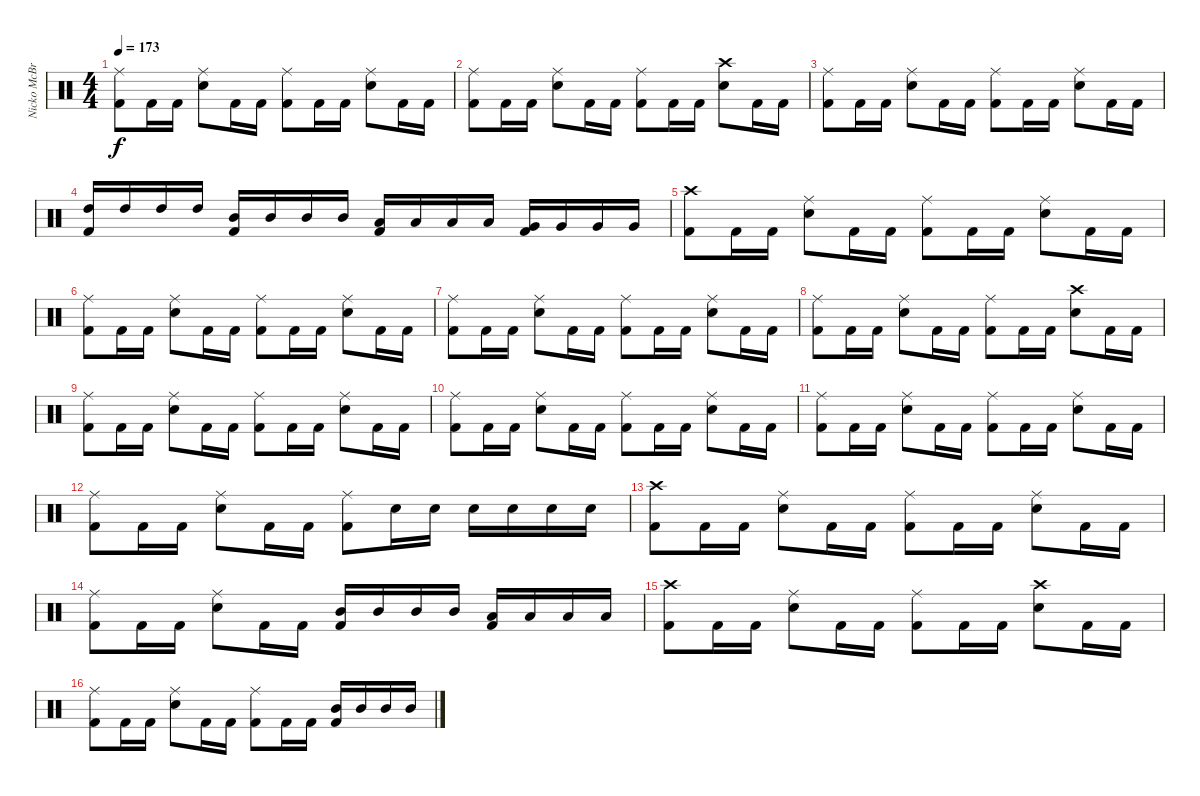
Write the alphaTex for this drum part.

\track ("Nicko McBrain" "Nicko McBr") {instrument percussion}
\staff {score}
\articulation defaults
\ts (4 4)
\tempo 173
\clef neutral
\ks c
("Ride (middle)" "Kick (hit) 2").8{dy f} "Kick (hit) 2".16 "Kick (hit) 2".16 ("Ride (middle)" "Electric Snare (hit)").8 "Kick (hit) 2".16 "Kick (hit) 2".16 ("Ride (middle)" "Kick (hit) 2").8 "Kick (hit) 2".16 "Kick (hit) 2".16 ("Ride (middle)" "Electric Snare (hit)").8 "Kick (hit) 2".16 "Kick (hit) 2".16 |
("Ride (middle)" "Kick (hit) 2").8 "Kick (hit) 2".16 "Kick (hit) 2".16 ("Ride (middle)" "Electric Snare (hit)").8 "Kick (hit) 2".16 "Kick (hit) 2".16 ("Ride (middle)" "Kick (hit) 2").8 "Kick (hit) 2".16 "Kick (hit) 2".16 ("Crash high (hit)" "Electric Snare (hit)").8 "Kick (hit) 2".16 "Kick (hit) 2".16 |
("Ride (middle)" "Kick (hit) 2").8 "Kick (hit) 2".16 "Kick (hit) 2".16 ("Ride (middle)" "Electric Snare (hit)").8 "Kick (hit) 2".16 "Kick (hit) 2".16 ("Ride (middle)" "Kick (hit) 2").8 "Kick (hit) 2".16 "Kick (hit) 2".16 ("Ride (middle)" "Electric Snare (hit)").8 "Kick (hit) 2".16 "Kick (hit) 2".16 |
("High Tom (hit)" "Kick (hit) 2").16 "High Tom (hit)".16 "High Tom (hit)".16 "High Tom (hit)".16 ("Mid Tom (hit)" "Kick (hit) 2").16 "Mid Tom (hit)".16 "Mid Tom (hit)".16 "Mid Tom (hit)".16 ("Low Tom (hit)" "Kick (hit) 2").16 "Low Tom (hit)".16 "Low Tom (hit)".16 "Low Tom (hit)".16 ("Very Low Tom (hit)" "Kick (hit) 2").16 "Very Low Tom (hit)".16 "Very Low Tom (hit)".16 "Very Low Tom (hit)".16 |
("Crash high (hit)" "Kick (hit) 2").8 "Kick (hit) 2".16 "Kick (hit) 2".16 ("Ride (middle)" "Electric Snare (hit)").8 "Kick (hit) 2".16 "Kick (hit) 2".16 ("Ride (middle)" "Kick (hit) 2").8 "Kick (hit) 2".16 "Kick (hit) 2".16 ("Ride (middle)" "Electric Snare (hit)").8 "Kick (hit) 2".16 "Kick (hit) 2".16 |
("Ride (middle)" "Kick (hit) 2").8 "Kick (hit) 2".16 "Kick (hit) 2".16 ("Ride (middle)" "Electric Snare (hit)").8 "Kick (hit) 2".16 "Kick (hit) 2".16 ("Ride (middle)" "Kick (hit) 2").8 "Kick (hit) 2".16 "Kick (hit) 2".16 ("Ride (middle)" "Electric Snare (hit)").8 "Kick (hit) 2".16 "Kick (hit) 2".16 |
("Ride (middle)" "Kick (hit) 2").8 "Kick (hit) 2".16 "Kick (hit) 2".16 ("Ride (middle)" "Electric Snare (hit)").8 "Kick (hit) 2".16 "Kick (hit) 2".16 ("Ride (middle)" "Kick (hit) 2").8 "Kick (hit) 2".16 "Kick (hit) 2".16 ("Ride (middle)" "Electric Snare (hit)").8 "Kick (hit) 2".16 "Kick (hit) 2".16 |
("Ride (middle)" "Kick (hit) 2").8 "Kick (hit) 2".16 "Kick (hit) 2".16 ("Ride (middle)" "Electric Snare (hit)").8 "Kick (hit) 2".16 "Kick (hit) 2".16 ("Ride (middle)" "Kick (hit) 2").8 "Kick (hit) 2".16 "Kick (hit) 2".16 ("Crash high (hit)" "Electric Snare (hit)").8 "Kick (hit) 2".16 "Kick (hit) 2".16 |
("Ride (middle)" "Kick (hit) 2").8 "Kick (hit) 2".16 "Kick (hit) 2".16 ("Ride (middle)" "Electric Snare (hit)").8 "Kick (hit) 2".16 "Kick (hit) 2".16 ("Ride (middle)" "Kick (hit) 2").8 "Kick (hit) 2".16 "Kick (hit) 2".16 ("Ride (middle)" "Electric Snare (hit)").8 "Kick (hit) 2".16 "Kick (hit) 2".16 |
("Ride (middle)" "Kick (hit) 2").8 "Kick (hit) 2".16 "Kick (hit) 2".16 ("Ride (middle)" "Electric Snare (hit)").8 "Kick (hit) 2".16 "Kick (hit) 2".16 ("Ride (middle)" "Kick (hit) 2").8 "Kick (hit) 2".16 "Kick (hit) 2".16 ("Ride (middle)" "Electric Snare (hit)").8 "Kick (hit) 2".16 "Kick (hit) 2".16 |
("Ride (middle)" "Kick (hit) 2").8 "Kick (hit) 2".16 "Kick (hit) 2".16 ("Ride (middle)" "Electric Snare (hit)").8 "Kick (hit) 2".16 "Kick (hit) 2".16 ("Ride (middle)" "Kick (hit) 2").8 "Kick (hit) 2".16 "Kick (hit) 2".16 ("Ride (middle)" "Electric Snare (hit)").8 "Kick (hit) 2".16 "Kick (hit) 2".16 |
("Ride (middle)" "Kick (hit) 2").8 "Kick (hit) 2".16 "Kick (hit) 2".16 ("Ride (middle)" "Electric Snare (hit)").8 "Kick (hit) 2".16 "Kick (hit) 2".16 ("Ride (middle)" "Kick (hit) 2").8 "Electric Snare (hit)".16 "Electric Snare (hit)".16 "Electric Snare (hit)".16 "Electric Snare (hit)".16 "Electric Snare (hit)".16 "Electric Snare (hit)".16 |
("Crash high (hit)" "Kick (hit) 2").8 "Kick (hit) 2".16 "Kick (hit) 2".16 ("Ride (middle)" "Electric Snare (hit)").8 "Kick (hit) 2".16 "Kick (hit) 2".16 ("Ride (middle)" "Kick (hit) 2").8 "Kick (hit) 2".16 "Kick (hit) 2".16 ("Ride (middle)" "Electric Snare (hit)").8 "Kick (hit) 2".16 "Kick (hit) 2".16 |
("Ride (middle)" "Kick (hit) 2").8 "Kick (hit) 2".16 "Kick (hit) 2".16 ("Ride (middle)" "Electric Snare (hit)").8 "Kick (hit) 2".16 "Kick (hit) 2".16 ("Mid Tom (hit)" "Kick (hit) 2").16 "Mid Tom (hit)".16 "Mid Tom (hit)".16 "Mid Tom (hit)".16 ("Low Tom (hit)" "Kick (hit) 2").16 "Low Tom (hit)".16 "Low Tom (hit)".16 "Low Tom (hit)".16 |
("Crash high (hit)" "Kick (hit) 2").8 "Kick (hit) 2".16 "Kick (hit) 2".16 ("Ride (middle)" "Electric Snare (hit)").8 "Kick (hit) 2".16 "Kick (hit) 2".16 ("Ride (middle)" "Kick (hit) 2").8 "Kick (hit) 2".16 "Kick (hit) 2".16 ("Crash high (hit)" "Electric Snare (hit)").8 "Kick (hit) 2".16 "Kick (hit) 2".16 |
("Ride (middle)" "Kick (hit) 2").8 "Kick (hit) 2".16 "Kick (hit) 2".16 ("Ride (middle)" "Electric Snare (hit)").8 "Kick (hit) 2".16 "Kick (hit) 2".16 ("Ride (middle)" "Kick (hit) 2").8 "Kick (hit) 2".16 "Kick (hit) 2".16 ("Mid Tom (hit)" "Kick (hit) 2").16 "Mid Tom (hit)".16 "Mid Tom (hit)".16 "Mid Tom (hit)".16
